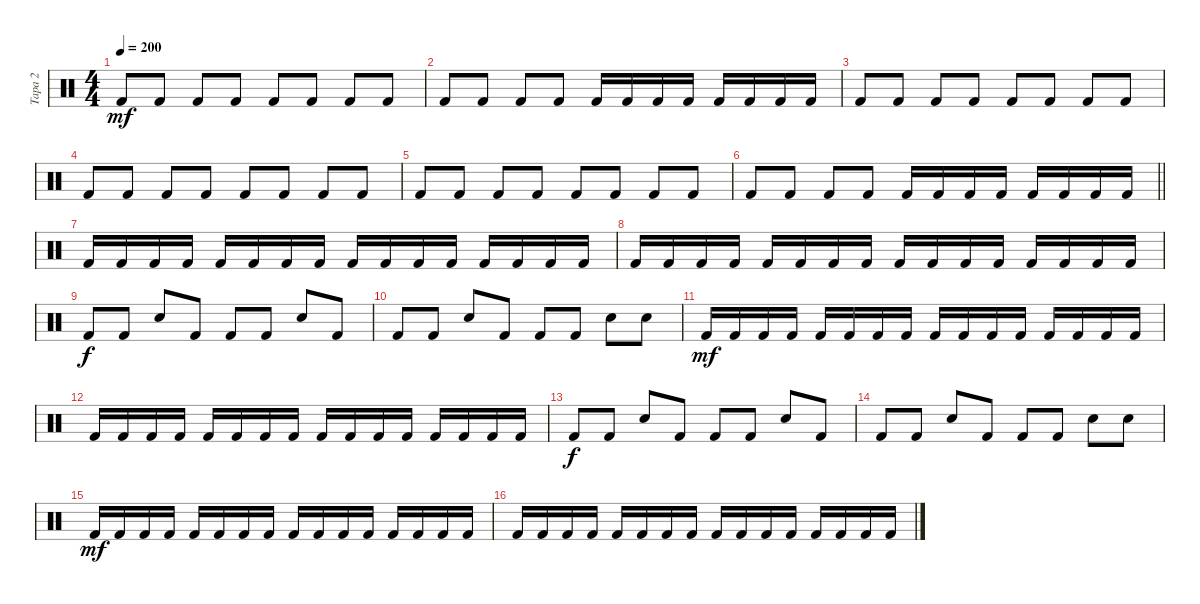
\track ("Tapa 2" "Tapa 2") {instrument percussion}
\staff {score}
\articulation defaults
\ts (4 4)
\tempo 200
\clef neutral
\ks c "Kick (hit) 2".8{dy mf} "Kick (hit) 2".8 "Kick (hit) 2".8 "Kick (hit) 2".8 "Kick (hit) 2".8 "Kick (hit) 2".8 "Kick (hit) 2".8 "Kick (hit) 2".8
|
"Kick (hit) 2".8 "Kick (hit) 2".8 "Kick (hit) 2".8 "Kick (hit) 2".8 "Kick (hit) 2".16 "Kick (hit) 2".16 "Kick (hit) 2".16 "Kick (hit) 2".16 "Kick (hit) 2".16 "Kick (hit) 2".16 "Kick (hit) 2".16 "Kick (hit) 2".16 |
"Kick (hit) 2".8 "Kick (hit) 2".8 "Kick (hit) 2".8 "Kick (hit) 2".8 "Kick (hit) 2".8 "Kick (hit) 2".8 "Kick (hit) 2".8 "Kick (hit) 2".8 |
"Kick (hit) 2".8 "Kick (hit) 2".8 "Kick (hit) 2".8 "Kick (hit) 2".8 "Kick (hit) 2".8 "Kick (hit) 2".8 "Kick (hit) 2".8 "Kick (hit) 2".8 |
"Kick (hit) 2".8 "Kick (hit) 2".8 "Kick (hit) 2".8 "Kick (hit) 2".8 "Kick (hit) 2".8 "Kick (hit) 2".8 "Kick (hit) 2".8 "Kick (hit) 2".8 |
\barLineRight lightlight "Kick (hit) 2".8 "Kick (hit) 2".8 "Kick (hit) 2".8 "Kick (hit) 2".8 "Kick (hit) 2".16 "Kick (hit) 2".16 "Kick (hit) 2".16 "Kick (hit) 2".16 "Kick (hit) 2".16 "Kick (hit) 2".16 "Kick (hit) 2".16 "Kick (hit) 2".16
|
"Kick (hit) 2".16 "Kick (hit) 2".16 "Kick (hit) 2".16 "Kick (hit) 2".16 "Kick (hit) 2".16 "Kick (hit) 2".16 "Kick (hit) 2".16 "Kick (hit) 2".16 "Kick (hit) 2".16 "Kick (hit) 2".16 "Kick (hit) 2".16 "Kick (hit) 2".16 "Kick (hit) 2".16 "Kick (hit) 2".16 "Kick (hit) 2".16 "Kick (hit) 2".16 |
"Kick (hit) 2".16 "Kick (hit) 2".16 "Kick (hit) 2".16 "Kick (hit) 2".16 "Kick (hit) 2".16 "Kick (hit) 2".16 "Kick (hit) 2".16 "Kick (hit) 2".16 "Kick (hit) 2".16 "Kick (hit) 2".16 "Kick (hit) 2".16 "Kick (hit) 2".16 "Kick (hit) 2".16 "Kick (hit) 2".16 "Kick (hit) 2".16 "Kick (hit) 2".16 |
"Kick (hit) 2".8{dy f} "Kick (hit) 2".8 "Snare (hit) 2".8 "Kick (hit) 2".8 "Kick (hit) 2".8 "Kick (hit) 2".8 "Snare (hit) 2".8 "Kick (hit) 2".8 |
"Kick (hit) 2".8 "Kick (hit) 2".8 "Snare (hit) 2".8 "Kick (hit) 2".8 "Kick (hit) 2".8 "Kick (hit) 2".8 "Snare (hit) 2".8 "Snare (hit) 2".8 |
"Kick (hit) 2".16{dy mf} "Kick (hit) 2".16 "Kick (hit) 2".16 "Kick (hit) 2".16 "Kick (hit) 2".16 "Kick (hit) 2".16 "Kick (hit) 2".16 "Kick (hit) 2".16 "Kick (hit) 2".16 "Kick (hit) 2".16 "Kick (hit) 2".16 "Kick (hit) 2".16 "Kick (hit) 2".16 "Kick (hit) 2".16 "Kick (hit) 2".16 "Kick (hit) 2".16 |
"Kick (hit) 2".16 "Kick (hit) 2".16 "Kick (hit) 2".16 "Kick (hit) 2".16 "Kick (hit) 2".16 "Kick (hit) 2".16 "Kick (hit) 2".16 "Kick (hit) 2".16 "Kick (hit) 2".16 "Kick (hit) 2".16 "Kick (hit) 2".16 "Kick (hit) 2".16 "Kick (hit) 2".16 "Kick (hit) 2".16 "Kick (hit) 2".16 "Kick (hit) 2".16 |
"Kick (hit) 2".8{dy f} "Kick (hit) 2".8 "Snare (hit) 2".8 "Kick (hit) 2".8 "Kick (hit) 2".8 "Kick (hit) 2".8 "Snare (hit) 2".8 "Kick (hit) 2".8 |
"Kick (hit) 2".8 "Kick (hit) 2".8 "Snare (hit) 2".8 "Kick (hit) 2".8 "Kick (hit) 2".8 "Kick (hit) 2".8 "Snare (hit) 2".8 "Snare (hit) 2".8 |
"Kick (hit) 2".16{dy mf} "Kick (hit) 2".16 "Kick (hit) 2".16 "Kick (hit) 2".16 "Kick (hit) 2".16 "Kick (hit) 2".16 "Kick (hit) 2".16 "Kick (hit) 2".16 "Kick (hit) 2".16 "Kick (hit) 2".16 "Kick (hit) 2".16 "Kick (hit) 2".16 "Kick (hit) 2".16 "Kick (hit) 2".16 "Kick (hit) 2".16 "Kick (hit) 2".16 |
"Kick (hit) 2".16 "Kick (hit) 2".16 "Kick (hit) 2".16 "Kick (hit) 2".16 "Kick (hit) 2".16 "Kick (hit) 2".16 "Kick (hit) 2".16 "Kick (hit) 2".16 "Kick (hit) 2".16 "Kick (hit) 2".16 "Kick (hit) 2".16 "Kick (hit) 2".16 "Kick (hit) 2".16 "Kick (hit) 2".16 "Kick (hit) 2".16 "Kick (hit) 2".16
